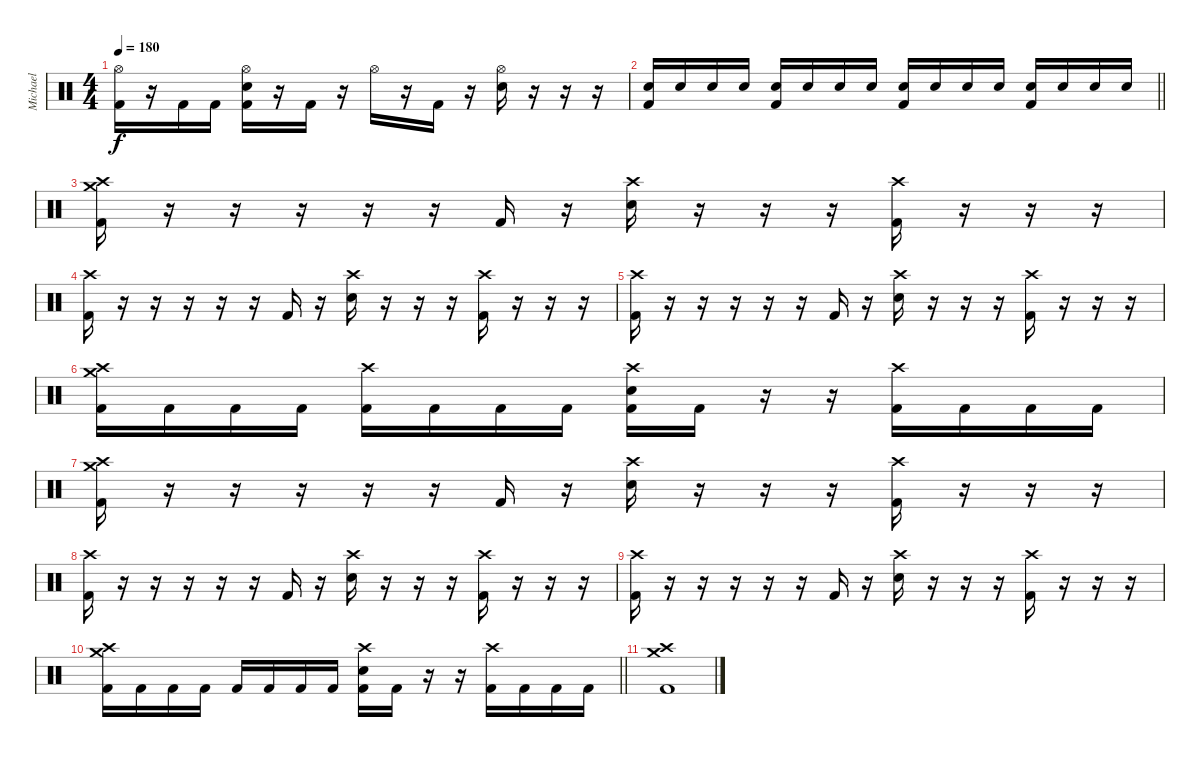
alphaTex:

\track ("Michael" "Michael") {instrument percussion}
\staff {score}
\articulation defaults
\ts (4 4)
\tempo 180
\clef neutral
\ks c
("Hi-Hat (open)" "Kick (hit) 2").16{dy f} r.16 "Kick (hit) 2".16 "Kick (hit) 2".16 ("Hi-Hat (open)" "Electric Snare (hit)" "Kick (hit) 2").16 r.16 "Kick (hit) 2".16 r.16 "Hi-Hat (open)".16 r.16 "Kick (hit) 2".16 r.16 ("Hi-Hat (open)" "Electric Snare (hit)").16 r.16 r.16 r.16 |
\barLineRight lightlight
("Electric Snare (hit)" "Kick (hit) 2").16 "Electric Snare (hit)".16 "Electric Snare (hit)".16 "Electric Snare (hit)".16 ("Electric Snare (hit)" "Kick (hit) 2").16 "Electric Snare (hit)".16 "Electric Snare (hit)".16 "Electric Snare (hit)".16 ("Electric Snare (hit)" "Kick (hit) 2").16 "Electric Snare (hit)".16 "Electric Snare (hit)".16 "Electric Snare (hit)".16 ("Electric Snare (hit)" "Kick (hit) 2").16 "Electric Snare (hit)".16 "Electric Snare (hit)".16 "Electric Snare (hit)".16 |
("Crash medium (hit)" "Crash high (hit)" "Kick (hit) 2").16 r.16 r.16 r.16 r.16 r.16 "Kick (hit) 2".16 r.16 ("Crash high (hit)" "Electric Snare (hit)").16 r.16 r.16 r.16 ("Crash high (hit)" "Kick (hit) 2").16 r.16 r.16 r.16 |
("Crash high (hit)" "Kick (hit) 2").16 r.16 r.16 r.16 r.16 r.16 "Kick (hit) 2".16 r.16 ("Crash high (hit)" "Electric Snare (hit)").16 r.16 r.16 r.16 ("Crash high (hit)" "Kick (hit) 2").16 r.16 r.16 r.16 |
("Crash high (hit)" "Kick (hit) 2").16 r.16 r.16 r.16 r.16 r.16 "Kick (hit) 2".16 r.16 ("Crash high (hit)" "Electric Snare (hit)").16 r.16 r.16 r.16 ("Crash high (hit)" "Kick (hit) 2").16 r.16 r.16 r.16 |
("Crash medium (hit)" "Crash high (hit)" "Kick (hit) 2").16 "Kick (hit) 2".16 "Kick (hit) 2".16 "Kick (hit) 2".16 ("Crash high (hit)" "Kick (hit) 2").16 "Kick (hit) 2".16 "Kick (hit) 2".16 "Kick (hit) 2".16 ("Crash high (hit)" "Electric Snare (hit)" "Kick (hit) 2").16 "Kick (hit) 2".16 r.16 r.16 ("Crash high (hit)" "Kick (hit) 2").16 "Kick (hit) 2".16 "Kick (hit) 2".16 "Kick (hit) 2".16 |
("Crash medium (hit)" "Crash high (hit)" "Kick (hit) 2").16 r.16 r.16 r.16 r.16 r.16 "Kick (hit) 2".16 r.16 ("Crash high (hit)" "Electric Snare (hit)").16 r.16 r.16 r.16 ("Crash high (hit)" "Kick (hit) 2").16 r.16 r.16 r.16 |
("Crash high (hit)" "Kick (hit) 2").16 r.16 r.16 r.16 r.16 r.16 "Kick (hit) 2".16 r.16 ("Crash high (hit)" "Electric Snare (hit)").16 r.16 r.16 r.16 ("Crash high (hit)" "Kick (hit) 2").16 r.16 r.16 r.16 |
("Crash high (hit)" "Kick (hit) 2").16 r.16 r.16 r.16 r.16 r.16 "Kick (hit) 2".16 r.16 ("Crash high (hit)" "Electric Snare (hit)").16 r.16 r.16 r.16 ("Crash high (hit)" "Kick (hit) 2").16 r.16 r.16 r.16 |
\barLineRight lightlight
("Crash medium (hit)" "Crash high (hit)" "Kick (hit) 2").16 "Kick (hit) 2".16 "Kick (hit) 2".16 "Kick (hit) 2".16 "Kick (hit) 2".16 "Kick (hit) 2".16 "Kick (hit) 2".16 "Kick (hit) 2".16 ("Crash high (hit)" "Electric Snare (hit)" "Kick (hit) 2").16 "Kick (hit) 2".16 r.16 r.16 ("Crash high (hit)" "Kick (hit) 2").16 "Kick (hit) 2".16 "Kick (hit) 2".16 "Kick (hit) 2".16 |
("Crash medium (hit)" "Crash high (hit)" "Kick (hit) 2").1
